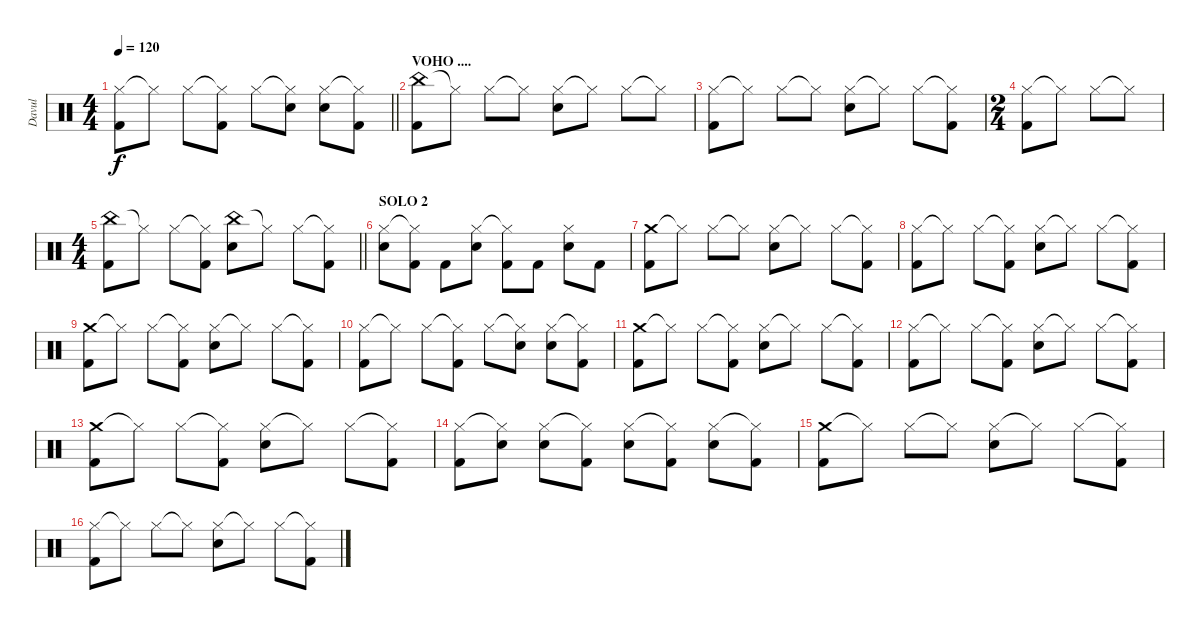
\track ("Davul" "Davul") {instrument percussion}
\staff {score}
\articulation defaults
\ts (4 4)
\tempo 120
\clef neutral
\barLineRight lightlight
\ks c
("Hi-Hat (closed)" "Kick (hit) 2").8{dy f} "Hi-Hat (closed)"{t}.8 "Hi-Hat (closed)".8 ("Hi-Hat (closed)"{t} "Kick (hit) 2").8 "Hi-Hat (closed)".8 ("Hi-Hat (closed)"{t} "Snare (hit) 2").8 ("Hi-Hat (closed)" "Snare (hit) 2").8 ("Hi-Hat (closed)"{t} "Kick (hit) 2").8 |
\section ("" "VOHO ....")
("China (hit)" "Kick (hit) 2").8 "Hi-Hat (closed)"{t}.8 "Hi-Hat (closed)".8 "Hi-Hat (closed)"{t}.8 ("Hi-Hat (closed)" "Snare (hit) 2").8 "Hi-Hat (closed)"{t}.8 "Hi-Hat (closed)".8 "Hi-Hat (closed)"{t}.8 |
("Hi-Hat (closed)" "Kick (hit) 2").8 "Hi-Hat (closed)"{t}.8 "Hi-Hat (closed)".8 "Hi-Hat (closed)"{t}.8 ("Hi-Hat (closed)" "Snare (hit) 2").8 "Hi-Hat (closed)"{t}.8 "Hi-Hat (closed)".8 ("Hi-Hat (closed)"{t} "Kick (hit) 2").8 |
\ts (2 4)
("Hi-Hat (closed)" "Kick (hit) 2").8 "Hi-Hat (closed)"{t}.8 "Hi-Hat (closed)".8 "Hi-Hat (closed)"{t}.8 |
\ts (4 4)
\barLineRight lightlight
("China (hit)" "Kick (hit) 2").8 "Hi-Hat (closed)"{t}.8 "Hi-Hat (closed)".8 ("Hi-Hat (closed)"{t} "Kick (hit) 2").8 ("China (hit)" "Snare (hit) 2").8 "Hi-Hat (closed)"{t}.8 "Hi-Hat (closed)".8 ("Hi-Hat (closed)"{t} "Kick (hit) 2").8 |
\section ("" "SOLO 2")
("Hi-Hat (closed)" "Snare (hit) 2").8 ("Hi-Hat (closed)"{t} "Kick (hit) 2").8 "Kick (hit) 2".8 ("Hi-Hat (closed)" "Snare (hit) 2").8 ("Hi-Hat (closed)"{t} "Kick (hit) 2").8 "Kick (hit) 2".8 ("Hi-Hat (closed)" "Snare (hit) 2").8 "Kick (hit) 2".8 |
("Crash medium (hit)" "Kick (hit) 2").8 "Hi-Hat (closed)"{t}.8 "Hi-Hat (closed)".8 "Hi-Hat (closed)"{t}.8 ("Hi-Hat (closed)" "Snare (hit) 2").8 "Hi-Hat (closed)"{t}.8 "Hi-Hat (closed)".8 ("Hi-Hat (closed)"{t} "Kick (hit) 2").8 |
("Hi-Hat (closed)" "Kick (hit) 2").8 "Hi-Hat (closed)"{t}.8 "Hi-Hat (closed)".8 ("Hi-Hat (closed)"{t} "Kick (hit) 2").8 ("Hi-Hat (closed)" "Snare (hit) 2").8 "Hi-Hat (closed)"{t}.8 "Hi-Hat (closed)".8 ("Hi-Hat (closed)"{t} "Kick (hit) 2").8 |
("Crash medium (hit)" "Kick (hit) 2").8 "Hi-Hat (closed)"{t}.8 "Hi-Hat (closed)".8 ("Hi-Hat (closed)"{t} "Kick (hit) 2").8 ("Hi-Hat (closed)" "Snare (hit) 2").8 "Hi-Hat (closed)"{t}.8 "Hi-Hat (closed)".8 ("Hi-Hat (closed)"{t} "Kick (hit) 2").8 |
("Hi-Hat (closed)" "Kick (hit) 2").8 "Hi-Hat (closed)"{t}.8 "Hi-Hat (closed)".8 ("Hi-Hat (closed)"{t} "Kick (hit) 2").8 "Hi-Hat (closed)".8 ("Hi-Hat (closed)"{t} "Snare (hit) 2").8 ("Hi-Hat (closed)" "Snare (hit) 2").8 ("Hi-Hat (closed)"{t} "Kick (hit) 2").8 |
("Crash medium (hit)" "Kick (hit) 2").8 "Hi-Hat (closed)"{t}.8 "Hi-Hat (closed)".8 ("Hi-Hat (closed)"{t} "Kick (hit) 2").8 ("Hi-Hat (closed)" "Snare (hit) 2").8 "Hi-Hat (closed)"{t}.8 "Hi-Hat (closed)".8 ("Hi-Hat (closed)"{t} "Kick (hit) 2").8 |
("Hi-Hat (closed)" "Kick (hit) 2").8 "Hi-Hat (closed)"{t}.8 "Hi-Hat (closed)".8 ("Hi-Hat (closed)"{t} "Kick (hit) 2").8 ("Hi-Hat (closed)" "Snare (hit) 2").8 "Hi-Hat (closed)"{t}.8 "Hi-Hat (closed)".8 ("Hi-Hat (closed)"{t} "Kick (hit) 2").8 |
("Crash medium (hit)" "Kick (hit) 2").8 "Hi-Hat (closed)"{t}.8 "Hi-Hat (closed)".8 ("Hi-Hat (closed)"{t} "Kick (hit) 2").8 ("Hi-Hat (closed)" "Snare (hit) 2").8 "Hi-Hat (closed)"{t}.8 "Hi-Hat (closed)".8 ("Hi-Hat (closed)"{t} "Kick (hit) 2").8 |
("Hi-Hat (closed)" "Kick (hit) 2").8 ("Hi-Hat (closed)"{t} "Snare (hit) 2").8 ("Hi-Hat (closed)" "Snare (hit) 2").8 ("Hi-Hat (closed)"{t} "Kick (hit) 2").8 ("Hi-Hat (closed)" "Snare (hit) 2").8 ("Hi-Hat (closed)"{t} "Kick (hit) 2").8 ("Hi-Hat (closed)" "Snare (hit) 2").8 ("Hi-Hat (closed)"{t} "Kick (hit) 2").8 |
("Crash medium (hit)" "Kick (hit) 2").8 "Hi-Hat (closed)"{t}.8 "Hi-Hat (closed)".8 "Hi-Hat (closed)"{t}.8 ("Hi-Hat (closed)" "Snare (hit) 2").8 "Hi-Hat (closed)"{t}.8 "Hi-Hat (closed)".8 ("Hi-Hat (closed)"{t} "Kick (hit) 2").8 |
("Hi-Hat (closed)" "Kick (hit) 2").8 "Hi-Hat (closed)"{t}.8 "Hi-Hat (closed)".8 "Hi-Hat (closed)"{t}.8 ("Hi-Hat (closed)" "Snare (hit) 2").8 "Hi-Hat (closed)"{t}.8 "Hi-Hat (closed)".8 ("Hi-Hat (closed)"{t} "Kick (hit) 2").8
